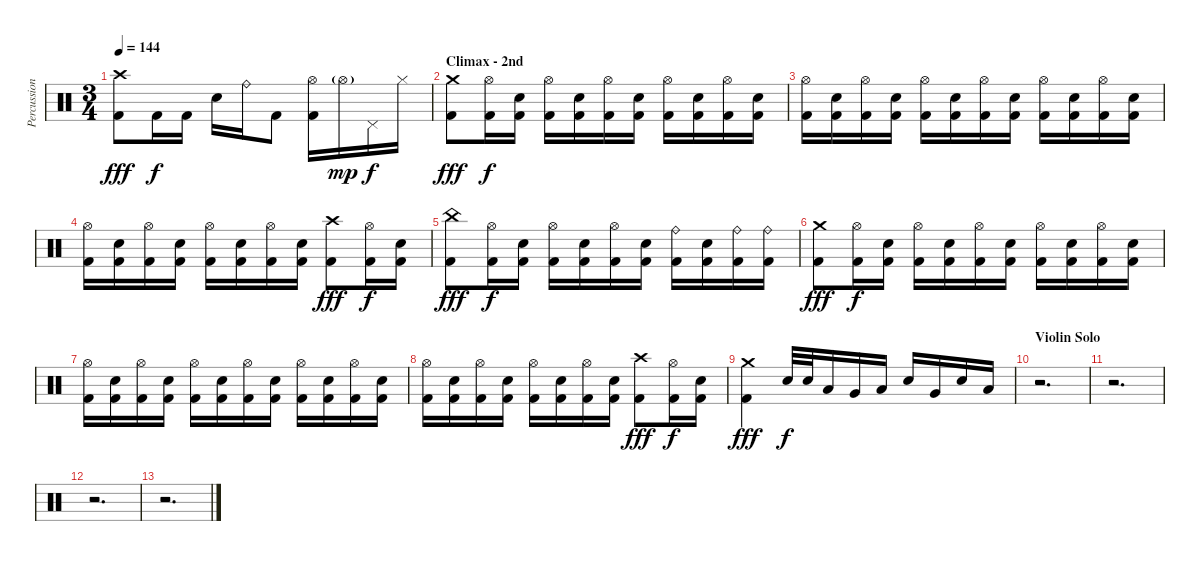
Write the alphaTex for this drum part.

\track ("Percussion" "Percussion") {instrument percussion}
\staff {score}
\articulation defaults
\ts (3 4)
\tempo 144
\clef neutral
\ks c
("Crash high (hit)" "Kick (hit) 2").8{dy fff} "Kick (hit) 2".16{dy f} "Kick (hit) 2".16 "Electric Snare (hit)".16 "Ride (bell)".16 "Kick (hit) 2".8 ("Hi-Hat (open)" "Kick (hit) 2").16 "Hi-Hat (open)"{g}.16{dy mp} "Pedal Hi-Hat (hit)".16{dy f} "Hi-Hat (closed)".16 |
\section ("" "Climax - 2nd")
("Crash medium (hit)" "Kick (hit) 2").8{dy fff} ("Hi-Hat (open)" "Kick (hit) 2").16{dy f} ("Electric Snare (hit)" "Kick (hit) 2").16 ("Hi-Hat (open)" "Kick (hit) 2").16 ("Electric Snare (hit)" "Kick (hit) 2").16 ("Hi-Hat (open)" "Kick (hit) 2").16 ("Electric Snare (hit)" "Kick (hit) 2").16 ("Hi-Hat (open)" "Kick (hit) 2").16 ("Electric Snare (hit)" "Kick (hit) 2").16 ("Hi-Hat (open)" "Kick (hit) 2").16 ("Electric Snare (hit)" "Kick (hit) 2").16 |
("Hi-Hat (open)" "Kick (hit) 2").16 ("Electric Snare (hit)" "Kick (hit) 2").16 ("Hi-Hat (open)" "Kick (hit) 2").16 ("Electric Snare (hit)" "Kick (hit) 2").16 ("Hi-Hat (open)" "Kick (hit) 2").16 ("Electric Snare (hit)" "Kick (hit) 2").16 ("Hi-Hat (open)" "Kick (hit) 2").16 ("Electric Snare (hit)" "Kick (hit) 2").16 ("Hi-Hat (open)" "Kick (hit) 2").16 ("Electric Snare (hit)" "Kick (hit) 2").16 ("Hi-Hat (open)" "Kick (hit) 2").16 ("Electric Snare (hit)" "Kick (hit) 2").16 |
("Hi-Hat (open)" "Kick (hit) 2").16 ("Electric Snare (hit)" "Kick (hit) 2").16 ("Hi-Hat (open)" "Kick (hit) 2").16 ("Electric Snare (hit)" "Kick (hit) 2").16 ("Hi-Hat (open)" "Kick (hit) 2").16 ("Electric Snare (hit)" "Kick (hit) 2").16 ("Hi-Hat (open)" "Kick (hit) 2").16 ("Electric Snare (hit)" "Kick (hit) 2").16 ("Crash high (hit)" "Kick (hit) 2").8{dy fff} ("Hi-Hat (open)" "Kick (hit) 2").16{dy f} ("Electric Snare (hit)" "Kick (hit) 2").16 |
("China (hit)" "Kick (hit) 2").8{dy fff} ("Hi-Hat (open)" "Kick (hit) 2").16{dy f} ("Electric Snare (hit)" "Kick (hit) 2").16 ("Hi-Hat (open)" "Kick (hit) 2").16 ("Electric Snare (hit)" "Kick (hit) 2").16 ("Hi-Hat (open)" "Kick (hit) 2").16 ("Electric Snare (hit)" "Kick (hit) 2").16 ("Ride (bell)" "Kick (hit) 2").16 ("Electric Snare (hit)" "Kick (hit) 2").16 ("Ride (bell)" "Kick (hit) 2").16 ("Ride (bell)" "Kick (hit) 2").16 |
("Crash medium (hit)" "Kick (hit) 2").8{dy fff} ("Hi-Hat (open)" "Kick (hit) 2").16{dy f} ("Electric Snare (hit)" "Kick (hit) 2").16 ("Hi-Hat (open)" "Kick (hit) 2").16 ("Electric Snare (hit)" "Kick (hit) 2").16 ("Hi-Hat (open)" "Kick (hit) 2").16 ("Electric Snare (hit)" "Kick (hit) 2").16 ("Hi-Hat (open)" "Kick (hit) 2").16 ("Electric Snare (hit)" "Kick (hit) 2").16 ("Hi-Hat (open)" "Kick (hit) 2").16 ("Electric Snare (hit)" "Kick (hit) 2").16 |
("Hi-Hat (open)" "Kick (hit) 2").16 ("Electric Snare (hit)" "Kick (hit) 2").16 ("Hi-Hat (open)" "Kick (hit) 2").16 ("Electric Snare (hit)" "Kick (hit) 2").16 ("Hi-Hat (open)" "Kick (hit) 2").16 ("Electric Snare (hit)" "Kick (hit) 2").16 ("Hi-Hat (open)" "Kick (hit) 2").16 ("Electric Snare (hit)" "Kick (hit) 2").16 ("Hi-Hat (open)" "Kick (hit) 2").16 ("Electric Snare (hit)" "Kick (hit) 2").16 ("Hi-Hat (open)" "Kick (hit) 2").16 ("Electric Snare (hit)" "Kick (hit) 2").16 |
("Hi-Hat (open)" "Kick (hit) 2").16 ("Electric Snare (hit)" "Kick (hit) 2").16 ("Hi-Hat (open)" "Kick (hit) 2").16 ("Electric Snare (hit)" "Kick (hit) 2").16 ("Hi-Hat (open)" "Kick (hit) 2").16 ("Electric Snare (hit)" "Kick (hit) 2").16 ("Hi-Hat (open)" "Kick (hit) 2").16 ("Electric Snare (hit)" "Kick (hit) 2").16 ("Crash high (hit)" "Kick (hit) 2").8{dy fff} ("Hi-Hat (open)" "Kick (hit) 2").16{dy f} ("Electric Snare (hit)" "Kick (hit) 2").16 |
("Crash medium (hit)" "Kick (hit) 2").4{dy fff} "Electric Snare (hit)".32{dy f} "Electric Snare (hit)".32 "Low Tom (hit)".16 "Very Low Tom (hit)".16 "Low Tom (hit)".16 "Electric Snare (hit)".16 "Very Low Tom (hit)".16 "Electric Snare (hit)".16 "Low Tom (hit)".16 |
\section ("" "Violin Solo")
r.2{d} |
r.2{d} |
r.2{d} |
r.2{d}
